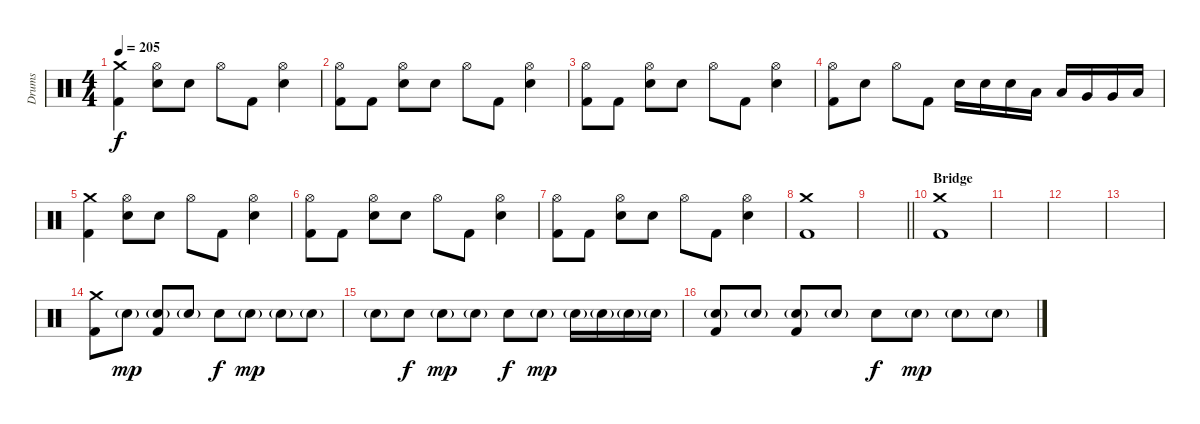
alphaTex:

\track ("Drums" "Drums") {instrument percussion}
\staff {score}
\articulation defaults
\ts (4 4)
\tempo 205
\clef neutral
\ks c
("Crash medium (hit)" "Kick (hit) 2").4{dy f} ("Hi-Hat (open)" "Electric Snare (hit)").8 "Electric Snare (hit)".8 "Hi-Hat (open)".8 "Kick (hit) 2".8 ("Hi-Hat (open)" "Electric Snare (hit)").4 |
("Hi-Hat (open)" "Kick (hit) 2").8 "Kick (hit) 2".8 ("Hi-Hat (open)" "Electric Snare (hit)").8 "Electric Snare (hit)".8 "Hi-Hat (open)".8 "Kick (hit) 2".8 ("Hi-Hat (open)" "Electric Snare (hit)").4 |
("Hi-Hat (open)" "Kick (hit) 2").8 "Kick (hit) 2".8 ("Hi-Hat (open)" "Electric Snare (hit)").8 "Electric Snare (hit)".8 "Hi-Hat (open)".8 "Kick (hit) 2".8 ("Hi-Hat (open)" "Electric Snare (hit)").4 |
("Hi-Hat (open)" "Kick (hit) 2").8 "Electric Snare (hit)".8 "Hi-Hat (open)".8 "Kick (hit) 2".8 "Electric Snare (hit)".16 "Electric Snare (hit)".16 "Electric Snare (hit)".16 "Low Tom (hit)".16 "Low Tom (hit)".16 "Very Low Tom (hit)".16 "Very Low Tom (hit)".16 "Low Floor Tom (hit)".16 |
("Crash medium (hit)" "Kick (hit) 2").4 ("Hi-Hat (open)" "Electric Snare (hit)").8 "Electric Snare (hit)".8 "Hi-Hat (open)".8 "Kick (hit) 2".8 ("Hi-Hat (open)" "Electric Snare (hit)").4 |
("Hi-Hat (open)" "Kick (hit) 2").8 "Kick (hit) 2".8 ("Hi-Hat (open)" "Electric Snare (hit)").8 "Electric Snare (hit)".8 "Hi-Hat (open)".8 "Kick (hit) 2".8 ("Hi-Hat (open)" "Electric Snare (hit)").4 |
("Hi-Hat (open)" "Kick (hit) 2").8 "Kick (hit) 2".8 ("Hi-Hat (open)" "Electric Snare (hit)").8 "Electric Snare (hit)".8 "Hi-Hat (open)".8 "Kick (hit) 2".8 ("Hi-Hat (open)" "Electric Snare (hit)").4 |
("Crash medium (hit)" "Kick (hit) 2").1 |
\barLineRight lightlight
|
\section ("" "Bridge")
("Crash medium (hit)" "Kick (hit) 2").1 |
|
|
|
("Crash medium (hit)" "Kick (hit) 2").8 "Electric Snare (hit)"{g}.8{dy mp} ("Electric Snare (hit)"{g} "Kick (hit) 2").8 "Electric Snare (hit)"{g}.8 "Electric Snare (hit)".8{dy f} "Electric Snare (hit)"{g}.8{dy mp} "Electric Snare (hit)"{g}.8 "Electric Snare (hit)"{g}.8 |
"Electric Snare (hit)"{g}.8 "Electric Snare (hit)".8{dy f} "Electric Snare (hit)"{g}.8{dy mp} "Electric Snare (hit)"{g}.8 "Electric Snare (hit)".8{dy f} "Electric Snare (hit)"{g}.8{dy mp} "Electric Snare (hit)"{g}.16 "Electric Snare (hit)"{g}.16 "Electric Snare (hit)"{g}.16 "Electric Snare (hit)"{g}.16 |
("Electric Snare (hit)"{g} "Kick (hit) 2").8 "Electric Snare (hit)"{g}.8 ("Electric Snare (hit)"{g} "Kick (hit) 2").8 "Electric Snare (hit)"{g}.8 "Electric Snare (hit)".8{dy f} "Electric Snare (hit)"{g}.8{dy mp} "Electric Snare (hit)"{g}.8 "Electric Snare (hit)"{g}.8
